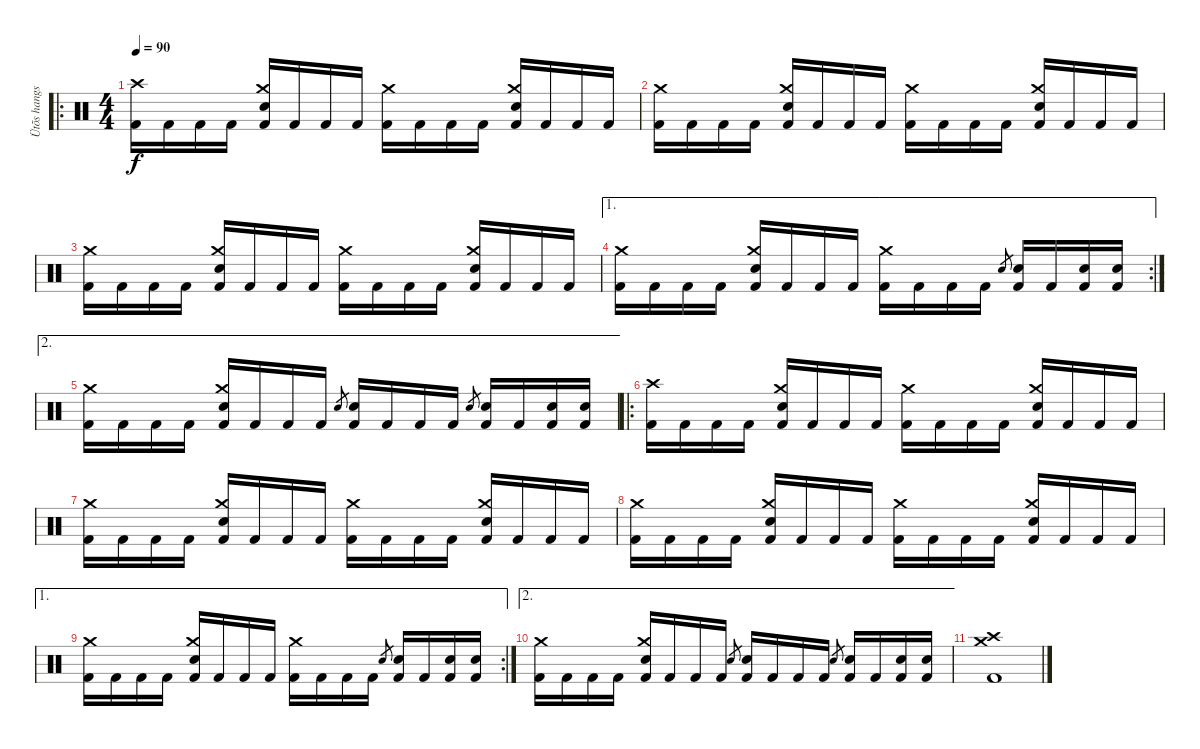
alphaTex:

\track ("Ütõs hangszer" "Ütõs hangs") {instrument percussion}
\staff {score}
\articulation defaults
\ro
\ts (4 4)
\tempo 90
\clef neutral
\ks c
("Crash high (hit)" "Kick (hit) 2").16{dy f} "Kick (hit) 2".16 "Kick (hit) 2".16 "Kick (hit) 2".16 ("Crash medium (hit)" "Electric Snare (hit)" "Kick (hit) 2").16 "Kick (hit) 2".16 "Kick (hit) 2".16 "Kick (hit) 2".16 ("Crash medium (hit)" "Kick (hit) 2").16 "Kick (hit) 2".16 "Kick (hit) 2".16 "Kick (hit) 2".16 ("Crash medium (hit)" "Electric Snare (hit)" "Kick (hit) 2").16 "Kick (hit) 2".16 "Kick (hit) 2".16 "Kick (hit) 2".16 |
("Crash medium (hit)" "Kick (hit) 2").16 "Kick (hit) 2".16 "Kick (hit) 2".16 "Kick (hit) 2".16 ("Crash medium (hit)" "Electric Snare (hit)" "Kick (hit) 2").16 "Kick (hit) 2".16 "Kick (hit) 2".16 "Kick (hit) 2".16 ("Crash medium (hit)" "Kick (hit) 2").16 "Kick (hit) 2".16 "Kick (hit) 2".16 "Kick (hit) 2".16 ("Crash medium (hit)" "Electric Snare (hit)" "Kick (hit) 2").16 "Kick (hit) 2".16 "Kick (hit) 2".16 "Kick (hit) 2".16 |
("Crash medium (hit)" "Kick (hit) 2").16 "Kick (hit) 2".16 "Kick (hit) 2".16 "Kick (hit) 2".16 ("Crash medium (hit)" "Electric Snare (hit)" "Kick (hit) 2").16 "Kick (hit) 2".16 "Kick (hit) 2".16 "Kick (hit) 2".16 ("Crash medium (hit)" "Kick (hit) 2").16 "Kick (hit) 2".16 "Kick (hit) 2".16 "Kick (hit) 2".16 ("Crash medium (hit)" "Electric Snare (hit)" "Kick (hit) 2").16 "Kick (hit) 2".16 "Kick (hit) 2".16 "Kick (hit) 2".16 |
\ae 1
\rc 2
("Crash medium (hit)" "Kick (hit) 2").16 "Kick (hit) 2".16 "Kick (hit) 2".16 "Kick (hit) 2".16 ("Crash medium (hit)" "Electric Snare (hit)" "Kick (hit) 2").16 "Kick (hit) 2".16 "Kick (hit) 2".16 "Kick (hit) 2".16 ("Crash medium (hit)" "Kick (hit) 2").16 "Kick (hit) 2".16 "Kick (hit) 2".16 "Kick (hit) 2".16 "Electric Snare (hit)".8{gr} ("Electric Snare (hit)" "Kick (hit) 2").16 "Kick (hit) 2".16 ("Electric Snare (hit)" "Kick (hit) 2").16 ("Electric Snare (hit)" "Kick (hit) 2").16 |
\ae 2
("Crash medium (hit)" "Kick (hit) 2").16 "Kick (hit) 2".16 "Kick (hit) 2".16 "Kick (hit) 2".16 ("Crash medium (hit)" "Electric Snare (hit)" "Kick (hit) 2").16 "Kick (hit) 2".16 "Kick (hit) 2".16 "Kick (hit) 2".16 "Electric Snare (hit)".8{gr} ("Electric Snare (hit)" "Kick (hit) 2").16 "Kick (hit) 2".16 "Kick (hit) 2".16 "Kick (hit) 2".16 "Electric Snare (hit)".8{gr} ("Electric Snare (hit)" "Kick (hit) 2").16 "Kick (hit) 2".16 ("Electric Snare (hit)" "Kick (hit) 2").16 ("Electric Snare (hit)" "Kick (hit) 2").16 |
\ro
("Crash high (hit)" "Kick (hit) 2").16 "Kick (hit) 2".16 "Kick (hit) 2".16 "Kick (hit) 2".16 ("Crash medium (hit)" "Electric Snare (hit)" "Kick (hit) 2").16 "Kick (hit) 2".16 "Kick (hit) 2".16 "Kick (hit) 2".16 ("Crash medium (hit)" "Kick (hit) 2").16 "Kick (hit) 2".16 "Kick (hit) 2".16 "Kick (hit) 2".16 ("Crash medium (hit)" "Electric Snare (hit)" "Kick (hit) 2").16 "Kick (hit) 2".16 "Kick (hit) 2".16 "Kick (hit) 2".16 |
("Crash medium (hit)" "Kick (hit) 2").16 "Kick (hit) 2".16 "Kick (hit) 2".16 "Kick (hit) 2".16 ("Crash medium (hit)" "Electric Snare (hit)" "Kick (hit) 2").16 "Kick (hit) 2".16 "Kick (hit) 2".16 "Kick (hit) 2".16 ("Crash medium (hit)" "Kick (hit) 2").16 "Kick (hit) 2".16 "Kick (hit) 2".16 "Kick (hit) 2".16 ("Crash medium (hit)" "Electric Snare (hit)" "Kick (hit) 2").16 "Kick (hit) 2".16 "Kick (hit) 2".16 "Kick (hit) 2".16 |
("Crash medium (hit)" "Kick (hit) 2").16 "Kick (hit) 2".16 "Kick (hit) 2".16 "Kick (hit) 2".16 ("Crash medium (hit)" "Electric Snare (hit)" "Kick (hit) 2").16 "Kick (hit) 2".16 "Kick (hit) 2".16 "Kick (hit) 2".16 ("Crash medium (hit)" "Kick (hit) 2").16 "Kick (hit) 2".16 "Kick (hit) 2".16 "Kick (hit) 2".16 ("Crash medium (hit)" "Electric Snare (hit)" "Kick (hit) 2").16 "Kick (hit) 2".16 "Kick (hit) 2".16 "Kick (hit) 2".16 |
\ae 1
\rc 2
("Crash medium (hit)" "Kick (hit) 2").16 "Kick (hit) 2".16 "Kick (hit) 2".16 "Kick (hit) 2".16 ("Crash medium (hit)" "Electric Snare (hit)" "Kick (hit) 2").16 "Kick (hit) 2".16 "Kick (hit) 2".16 "Kick (hit) 2".16 ("Crash medium (hit)" "Kick (hit) 2").16 "Kick (hit) 2".16 "Kick (hit) 2".16 "Kick (hit) 2".16 "Electric Snare (hit)".8{gr} ("Electric Snare (hit)" "Kick (hit) 2").16 "Kick (hit) 2".16 ("Electric Snare (hit)" "Kick (hit) 2").16 ("Electric Snare (hit)" "Kick (hit) 2").16 |
\ae 2
("Crash medium (hit)" "Kick (hit) 2").16 "Kick (hit) 2".16 "Kick (hit) 2".16 "Kick (hit) 2".16 ("Crash medium (hit)" "Electric Snare (hit)" "Kick (hit) 2").16 "Kick (hit) 2".16 "Kick (hit) 2".16 "Kick (hit) 2".16 "Electric Snare (hit)".8{gr} ("Electric Snare (hit)" "Kick (hit) 2").16 "Kick (hit) 2".16 "Kick (hit) 2".16 "Kick (hit) 2".16 "Electric Snare (hit)".8{gr} ("Electric Snare (hit)" "Kick (hit) 2").16 "Kick (hit) 2".16 ("Electric Snare (hit)" "Kick (hit) 2").16 ("Electric Snare (hit)" "Kick (hit) 2").16 |
("Crash high (hit)" "Crash medium (hit)" "Kick (hit) 2").1
